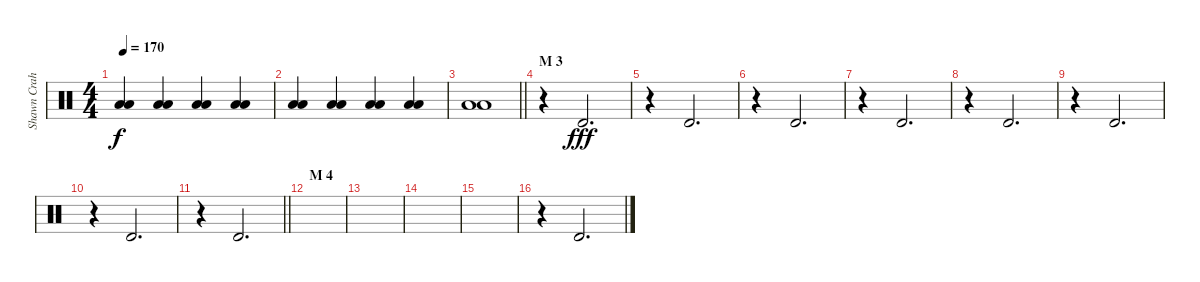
\track ("Shawn Crahan" "Shawn Crah") {instrument percussion}
\staff {score}
\articulation defaults
\ts (4 4)
\tempo 170
\clef neutral
\ks c
("Low Floor Tom (hit)" "Low Floor Tom (hit)").4{dy f} ("Low Floor Tom (hit)" "Low Floor Tom (hit)").4 ("Low Floor Tom (hit)" "Low Floor Tom (hit)").4 ("Low Floor Tom (hit)" "Low Floor Tom (hit)").4 |
("Low Floor Tom (hit)" "Low Floor Tom (hit)").4 ("Low Floor Tom (hit)" "Low Floor Tom (hit)").4 ("Low Floor Tom (hit)" "Low Floor Tom (hit)").4 ("Low Floor Tom (hit)" "Low Floor Tom (hit)").4 |
\barLineRight lightlight
("Low Floor Tom (hit)" "Low Floor Tom (hit)").1 |
\section ("" "M 3")
r.4 "Timbale high (hit)".2{d dy fff} |
r.4 "Timbale high (hit)".2{d} |
r.4 "Timbale high (hit)".2{d} |
r.4 "Timbale high (hit)".2{d} |
r.4 "Timbale high (hit)".2{d} |
r.4 "Timbale high (hit)".2{d} |
r.4 "Timbale high (hit)".2{d} |
\barLineRight lightlight
r.4 "Timbale high (hit)".2{d} |
\section ("" "M 4")
|
|
|
|
r.4 "Timbale high (hit)".2{d}
